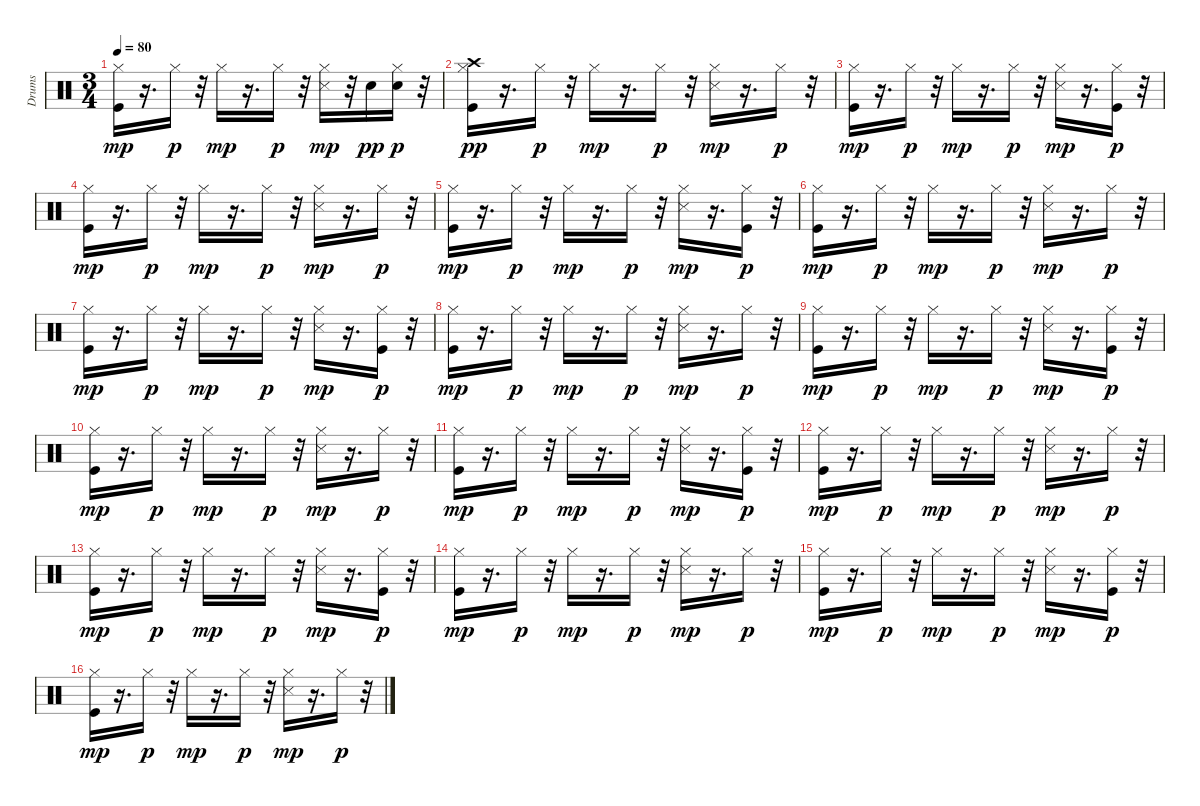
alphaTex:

\track ("Drums " "Drums ") {instrument percussion}
\staff {score}
\articulation defaults
\ts (3 4)
\tempo 80
\clef neutral
\ks c
("Kick (hit)" "Hi-Hat (closed)").16{dy mp} r.16{d} "Hi-Hat (closed)".16{dy p} r.32 "Hi-Hat (closed)".16{dy mp} r.16{d} "Hi-Hat (closed)".16{dy p} r.32 ("Hi-Hat (closed)" "Snare (side stick) 3").16{dy mp} r.32 "Snare (hit) 2".16{dy pp} ("Snare (hit) 2" "Hi-Hat (closed)").16{dy p} r.32 |
("Kick (hit)" "Hi-Hat (closed)" "Crash high (hit)").16{dy pp} r.16{d} "Hi-Hat (closed)".16{dy p} r.32 "Hi-Hat (closed)".16{dy mp} r.16{d} "Hi-Hat (closed)".16{dy p} r.32 ("Hi-Hat (closed)" "Snare (side stick) 3").16{dy mp} r.16{d} "Hi-Hat (closed)".16{dy p} r.32 |
("Kick (hit)" "Hi-Hat (closed)").16{dy mp} r.16{d} "Hi-Hat (closed)".16{dy p} r.32 "Hi-Hat (closed)".16{dy mp} r.16{d} "Hi-Hat (closed)".16{dy p} r.32 ("Hi-Hat (closed)" "Snare (side stick) 3").16{dy mp} r.16{d} ("Kick (hit)" "Hi-Hat (closed)").16{dy p} r.32 |
("Kick (hit)" "Hi-Hat (closed)").16{dy mp} r.16{d} "Hi-Hat (closed)".16{dy p} r.32 "Hi-Hat (closed)".16{dy mp} r.16{d} "Hi-Hat (closed)".16{dy p} r.32 ("Hi-Hat (closed)" "Snare (side stick) 3").16{dy mp} r.16{d} "Hi-Hat (closed)".16{dy p} r.32 |
("Kick (hit)" "Hi-Hat (closed)").16{dy mp} r.16{d} "Hi-Hat (closed)".16{dy p} r.32 "Hi-Hat (closed)".16{dy mp} r.16{d} "Hi-Hat (closed)".16{dy p} r.32 ("Hi-Hat (closed)" "Snare (side stick) 3").16{dy mp} r.16{d} ("Kick (hit)" "Hi-Hat (closed)").16{dy p} r.32 |
("Kick (hit)" "Hi-Hat (closed)").16{dy mp} r.16{d} "Hi-Hat (closed)".16{dy p} r.32 "Hi-Hat (closed)".16{dy mp} r.16{d} "Hi-Hat (closed)".16{dy p} r.32 ("Hi-Hat (closed)" "Snare (side stick) 3").16{dy mp} r.16{d} "Hi-Hat (closed)".16{dy p} r.32 |
("Kick (hit)" "Hi-Hat (closed)").16{dy mp} r.16{d} "Hi-Hat (closed)".16{dy p} r.32 "Hi-Hat (closed)".16{dy mp} r.16{d} "Hi-Hat (closed)".16{dy p} r.32 ("Hi-Hat (closed)" "Snare (side stick) 3").16{dy mp} r.16{d} ("Kick (hit)" "Hi-Hat (closed)").16{dy p} r.32 |
("Kick (hit)" "Hi-Hat (closed)").16{dy mp} r.16{d} "Hi-Hat (closed)".16{dy p} r.32 "Hi-Hat (closed)".16{dy mp} r.16{d} "Hi-Hat (closed)".16{dy p} r.32 ("Hi-Hat (closed)" "Snare (side stick) 3").16{dy mp} r.16{d} "Hi-Hat (closed)".16{dy p} r.32 |
("Kick (hit)" "Hi-Hat (closed)").16{dy mp} r.16{d} "Hi-Hat (closed)".16{dy p} r.32 "Hi-Hat (closed)".16{dy mp} r.16{d} "Hi-Hat (closed)".16{dy p} r.32 ("Hi-Hat (closed)" "Snare (side stick) 3").16{dy mp} r.16{d} ("Kick (hit)" "Hi-Hat (closed)").16{dy p} r.32 |
("Kick (hit)" "Hi-Hat (closed)").16{dy mp} r.16{d} "Hi-Hat (closed)".16{dy p} r.32 "Hi-Hat (closed)".16{dy mp} r.16{d} "Hi-Hat (closed)".16{dy p} r.32 ("Hi-Hat (closed)" "Snare (side stick) 3").16{dy mp} r.16{d} "Hi-Hat (closed)".16{dy p} r.32 |
("Kick (hit)" "Hi-Hat (closed)").16{dy mp} r.16{d} "Hi-Hat (closed)".16{dy p} r.32 "Hi-Hat (closed)".16{dy mp} r.16{d} "Hi-Hat (closed)".16{dy p} r.32 ("Hi-Hat (closed)" "Snare (side stick) 3").16{dy mp} r.16{d} ("Kick (hit)" "Hi-Hat (closed)").16{dy p} r.32 |
("Kick (hit)" "Hi-Hat (closed)").16{dy mp} r.16{d} "Hi-Hat (closed)".16{dy p} r.32 "Hi-Hat (closed)".16{dy mp} r.16{d} "Hi-Hat (closed)".16{dy p} r.32 ("Hi-Hat (closed)" "Snare (side stick) 3").16{dy mp} r.16{d} "Hi-Hat (closed)".16{dy p} r.32 |
("Kick (hit)" "Hi-Hat (closed)").16{dy mp} r.16{d} "Hi-Hat (closed)".16{dy p} r.32 "Hi-Hat (closed)".16{dy mp} r.16{d} "Hi-Hat (closed)".16{dy p} r.32 ("Hi-Hat (closed)" "Snare (side stick) 3").16{dy mp} r.16{d} ("Kick (hit)" "Hi-Hat (closed)").16{dy p} r.32 |
("Kick (hit)" "Hi-Hat (closed)").16{dy mp} r.16{d} "Hi-Hat (closed)".16{dy p} r.32 "Hi-Hat (closed)".16{dy mp} r.16{d} "Hi-Hat (closed)".16{dy p} r.32 ("Hi-Hat (closed)" "Snare (side stick) 3").16{dy mp} r.16{d} "Hi-Hat (closed)".16{dy p} r.32 |
("Kick (hit)" "Hi-Hat (closed)").16{dy mp} r.16{d} "Hi-Hat (closed)".16{dy p} r.32 "Hi-Hat (closed)".16{dy mp} r.16{d} "Hi-Hat (closed)".16{dy p} r.32 ("Hi-Hat (closed)" "Snare (side stick) 3").16{dy mp} r.16{d} ("Kick (hit)" "Hi-Hat (closed)").16{dy p} r.32 |
("Kick (hit)" "Hi-Hat (closed)").16{dy mp} r.16{d} "Hi-Hat (closed)".16{dy p} r.32 "Hi-Hat (closed)".16{dy mp} r.16{d} "Hi-Hat (closed)".16{dy p} r.32 ("Hi-Hat (closed)" "Snare (side stick) 3").16{dy mp} r.16{d} "Hi-Hat (closed)".16{dy p} r.32
